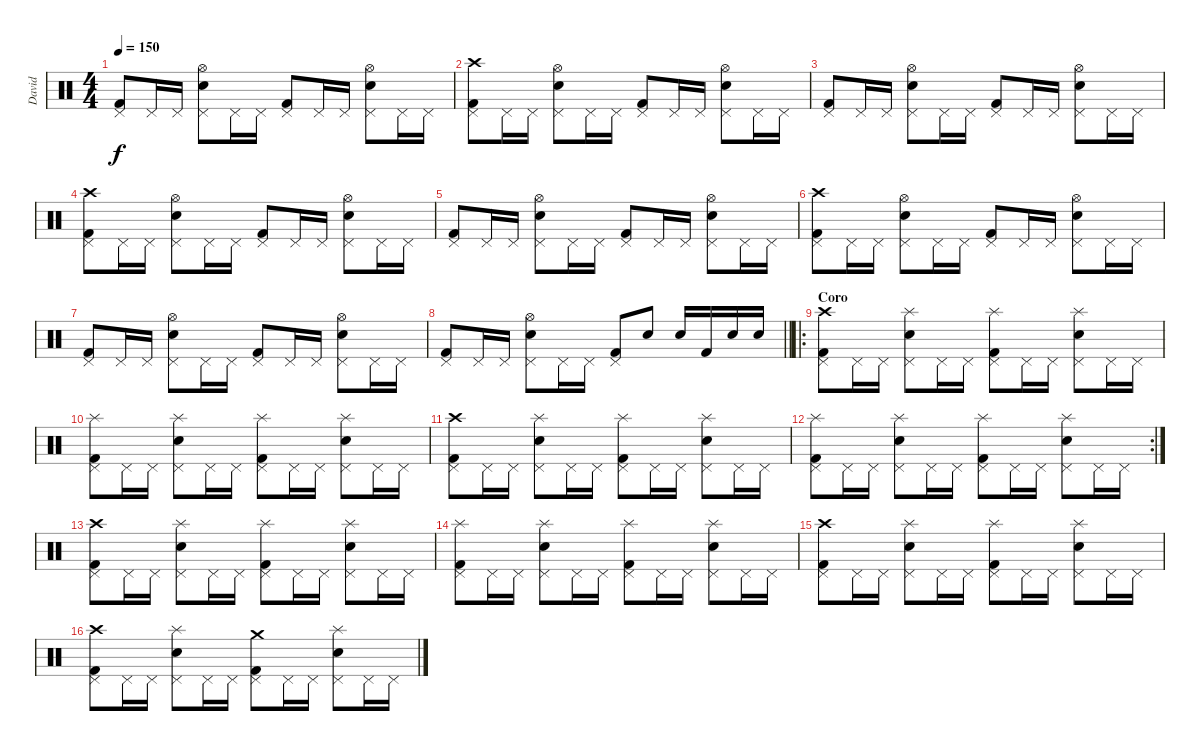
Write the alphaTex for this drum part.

\track ("David" "David") {instrument percussion}
\staff {score}
\articulation defaults
\ts (4 4)
\tempo 150
\clef neutral
\ks c
("Kick (hit) 2" "Pedal Hi-Hat (hit)").8{dy f} "Pedal Hi-Hat (hit)".16 "Pedal Hi-Hat (hit)".16 ("Snare (hit) 2" "Pedal Hi-Hat (hit)" "Hi-Hat (open)").8 "Pedal Hi-Hat (hit)".16 "Pedal Hi-Hat (hit)".16 ("Kick (hit) 2" "Pedal Hi-Hat (hit)").8 "Pedal Hi-Hat (hit)".16 "Pedal Hi-Hat (hit)".16 ("Snare (hit) 2" "Pedal Hi-Hat (hit)" "Hi-Hat (open)").8 "Pedal Hi-Hat (hit)".16 "Pedal Hi-Hat (hit)".16 |
("Kick (hit) 2" "Pedal Hi-Hat (hit)" "Crash high (hit)").8 "Pedal Hi-Hat (hit)".16 "Pedal Hi-Hat (hit)".16 ("Snare (hit) 2" "Pedal Hi-Hat (hit)" "Hi-Hat (open)").8 "Pedal Hi-Hat (hit)".16 "Pedal Hi-Hat (hit)".16 ("Kick (hit) 2" "Pedal Hi-Hat (hit)").8 "Pedal Hi-Hat (hit)".16 "Pedal Hi-Hat (hit)".16 ("Snare (hit) 2" "Pedal Hi-Hat (hit)" "Hi-Hat (open)").8 "Pedal Hi-Hat (hit)".16 "Pedal Hi-Hat (hit)".16 |
("Kick (hit) 2" "Pedal Hi-Hat (hit)").8 "Pedal Hi-Hat (hit)".16 "Pedal Hi-Hat (hit)".16 ("Snare (hit) 2" "Pedal Hi-Hat (hit)" "Hi-Hat (open)").8 "Pedal Hi-Hat (hit)".16 "Pedal Hi-Hat (hit)".16 ("Kick (hit) 2" "Pedal Hi-Hat (hit)").8 "Pedal Hi-Hat (hit)".16 "Pedal Hi-Hat (hit)".16 ("Snare (hit) 2" "Pedal Hi-Hat (hit)" "Hi-Hat (open)").8 "Pedal Hi-Hat (hit)".16 "Pedal Hi-Hat (hit)".16 |
("Kick (hit) 2" "Pedal Hi-Hat (hit)" "Crash high (hit)").8 "Pedal Hi-Hat (hit)".16 "Pedal Hi-Hat (hit)".16 ("Snare (hit) 2" "Pedal Hi-Hat (hit)" "Hi-Hat (open)").8 "Pedal Hi-Hat (hit)".16 "Pedal Hi-Hat (hit)".16 ("Kick (hit) 2" "Pedal Hi-Hat (hit)").8 "Pedal Hi-Hat (hit)".16 "Pedal Hi-Hat (hit)".16 ("Snare (hit) 2" "Pedal Hi-Hat (hit)" "Hi-Hat (open)").8 "Pedal Hi-Hat (hit)".16 "Pedal Hi-Hat (hit)".16 |
("Kick (hit) 2" "Pedal Hi-Hat (hit)").8 "Pedal Hi-Hat (hit)".16 "Pedal Hi-Hat (hit)".16 ("Snare (hit) 2" "Pedal Hi-Hat (hit)" "Hi-Hat (open)").8 "Pedal Hi-Hat (hit)".16 "Pedal Hi-Hat (hit)".16 ("Kick (hit) 2" "Pedal Hi-Hat (hit)").8 "Pedal Hi-Hat (hit)".16 "Pedal Hi-Hat (hit)".16 ("Snare (hit) 2" "Pedal Hi-Hat (hit)" "Hi-Hat (open)").8 "Pedal Hi-Hat (hit)".16 "Pedal Hi-Hat (hit)".16 |
("Kick (hit) 2" "Pedal Hi-Hat (hit)" "Crash high (hit)").8 "Pedal Hi-Hat (hit)".16 "Pedal Hi-Hat (hit)".16 ("Snare (hit) 2" "Pedal Hi-Hat (hit)" "Hi-Hat (open)").8 "Pedal Hi-Hat (hit)".16 "Pedal Hi-Hat (hit)".16 ("Kick (hit) 2" "Pedal Hi-Hat (hit)").8 "Pedal Hi-Hat (hit)".16 "Pedal Hi-Hat (hit)".16 ("Snare (hit) 2" "Pedal Hi-Hat (hit)" "Hi-Hat (open)").8 "Pedal Hi-Hat (hit)".16 "Pedal Hi-Hat (hit)".16 |
("Kick (hit) 2" "Pedal Hi-Hat (hit)").8 "Pedal Hi-Hat (hit)".16 "Pedal Hi-Hat (hit)".16 ("Snare (hit) 2" "Pedal Hi-Hat (hit)" "Hi-Hat (open)").8 "Pedal Hi-Hat (hit)".16 "Pedal Hi-Hat (hit)".16 ("Kick (hit) 2" "Pedal Hi-Hat (hit)").8 "Pedal Hi-Hat (hit)".16 "Pedal Hi-Hat (hit)".16 ("Snare (hit) 2" "Pedal Hi-Hat (hit)" "Hi-Hat (open)").8 "Pedal Hi-Hat (hit)".16 "Pedal Hi-Hat (hit)".16 |
\barLineRight lightlight
("Kick (hit) 2" "Pedal Hi-Hat (hit)").8 "Pedal Hi-Hat (hit)".16 "Pedal Hi-Hat (hit)".16 ("Snare (hit) 2" "Pedal Hi-Hat (hit)" "Hi-Hat (open)").8 "Pedal Hi-Hat (hit)".16 "Pedal Hi-Hat (hit)".16 ("Kick (hit) 2" "Pedal Hi-Hat (hit)").8 "Snare (hit) 2".8 "Snare (hit) 2".16 "Kick (hit) 2".16 "Snare (hit) 2".16 "Snare (hit) 2".16 |
\ro
\section ("" "Coro")
("Kick (hit) 2" "Pedal Hi-Hat (hit)" "Crash high (hit)").8 "Pedal Hi-Hat (hit)".16 "Pedal Hi-Hat (hit)".16 ("Snare (hit) 2" "Pedal Hi-Hat (hit)" "Splash (hit)").8 "Pedal Hi-Hat (hit)".16 "Pedal Hi-Hat (hit)".16 ("Kick (hit) 2" "Pedal Hi-Hat (hit)" "Splash (hit)").8 "Pedal Hi-Hat (hit)".16 "Pedal Hi-Hat (hit)".16 ("Snare (hit) 2" "Pedal Hi-Hat (hit)" "Splash (hit)").8 "Pedal Hi-Hat (hit)".16 "Pedal Hi-Hat (hit)".16 |
("Kick (hit) 2" "Pedal Hi-Hat (hit)" "Splash (hit)").8 "Pedal Hi-Hat (hit)".16 "Pedal Hi-Hat (hit)".16 ("Snare (hit) 2" "Pedal Hi-Hat (hit)" "Splash (hit)").8 "Pedal Hi-Hat (hit)".16 "Pedal Hi-Hat (hit)".16 ("Kick (hit) 2" "Pedal Hi-Hat (hit)" "Splash (hit)").8 "Pedal Hi-Hat (hit)".16 "Pedal Hi-Hat (hit)".16 ("Snare (hit) 2" "Pedal Hi-Hat (hit)" "Splash (hit)").8 "Pedal Hi-Hat (hit)".16 "Pedal Hi-Hat (hit)".16 |
("Kick (hit) 2" "Pedal Hi-Hat (hit)" "Crash high (hit)").8 "Pedal Hi-Hat (hit)".16 "Pedal Hi-Hat (hit)".16 ("Snare (hit) 2" "Pedal Hi-Hat (hit)" "Splash (hit)").8 "Pedal Hi-Hat (hit)".16 "Pedal Hi-Hat (hit)".16 ("Kick (hit) 2" "Pedal Hi-Hat (hit)" "Splash (hit)").8 "Pedal Hi-Hat (hit)".16 "Pedal Hi-Hat (hit)".16 ("Snare (hit) 2" "Pedal Hi-Hat (hit)" "Splash (hit)").8 "Pedal Hi-Hat (hit)".16 "Pedal Hi-Hat (hit)".16 |
\rc 2
("Kick (hit) 2" "Pedal Hi-Hat (hit)" "Splash (hit)").8 "Pedal Hi-Hat (hit)".16 "Pedal Hi-Hat (hit)".16 ("Snare (hit) 2" "Pedal Hi-Hat (hit)" "Splash (hit)").8 "Pedal Hi-Hat (hit)".16 "Pedal Hi-Hat (hit)".16 ("Kick (hit) 2" "Pedal Hi-Hat (hit)" "Splash (hit)").8 "Pedal Hi-Hat (hit)".16 "Pedal Hi-Hat (hit)".16 ("Snare (hit) 2" "Pedal Hi-Hat (hit)" "Splash (hit)").8 "Pedal Hi-Hat (hit)".16 "Pedal Hi-Hat (hit)".16 |
("Kick (hit) 2" "Pedal Hi-Hat (hit)" "Crash high (hit)").8 "Pedal Hi-Hat (hit)".16 "Pedal Hi-Hat (hit)".16 ("Snare (hit) 2" "Pedal Hi-Hat (hit)" "Splash (hit)").8 "Pedal Hi-Hat (hit)".16 "Pedal Hi-Hat (hit)".16 ("Kick (hit) 2" "Pedal Hi-Hat (hit)" "Splash (hit)").8 "Pedal Hi-Hat (hit)".16 "Pedal Hi-Hat (hit)".16 ("Snare (hit) 2" "Pedal Hi-Hat (hit)" "Splash (hit)").8 "Pedal Hi-Hat (hit)".16 "Pedal Hi-Hat (hit)".16 |
("Kick (hit) 2" "Pedal Hi-Hat (hit)" "Splash (hit)").8 "Pedal Hi-Hat (hit)".16 "Pedal Hi-Hat (hit)".16 ("Snare (hit) 2" "Pedal Hi-Hat (hit)" "Splash (hit)").8 "Pedal Hi-Hat (hit)".16 "Pedal Hi-Hat (hit)".16 ("Kick (hit) 2" "Pedal Hi-Hat (hit)" "Splash (hit)").8 "Pedal Hi-Hat (hit)".16 "Pedal Hi-Hat (hit)".16 ("Snare (hit) 2" "Pedal Hi-Hat (hit)" "Splash (hit)").8 "Pedal Hi-Hat (hit)".16 "Pedal Hi-Hat (hit)".16 |
("Kick (hit) 2" "Pedal Hi-Hat (hit)" "Crash high (hit)").8 "Pedal Hi-Hat (hit)".16 "Pedal Hi-Hat (hit)".16 ("Snare (hit) 2" "Pedal Hi-Hat (hit)" "Splash (hit)").8 "Pedal Hi-Hat (hit)".16 "Pedal Hi-Hat (hit)".16 ("Kick (hit) 2" "Pedal Hi-Hat (hit)" "Splash (hit)").8 "Pedal Hi-Hat (hit)".16 "Pedal Hi-Hat (hit)".16 ("Snare (hit) 2" "Pedal Hi-Hat (hit)" "Splash (hit)").8 "Pedal Hi-Hat (hit)".16 "Pedal Hi-Hat (hit)".16 |
("Kick (hit) 2" "Pedal Hi-Hat (hit)" "Crash high (hit)").8 "Pedal Hi-Hat (hit)".16 "Pedal Hi-Hat (hit)".16 ("Snare (hit) 2" "Pedal Hi-Hat (hit)" "Splash (hit)").8 "Pedal Hi-Hat (hit)".16 "Pedal Hi-Hat (hit)".16 ("Kick (hit) 2" "Pedal Hi-Hat (hit)" "Crash medium (hit)").8 "Pedal Hi-Hat (hit)".16 "Pedal Hi-Hat (hit)".16 ("Snare (hit) 2" "Pedal Hi-Hat (hit)" "Splash (hit)").8 "Pedal Hi-Hat (hit)".16 "Pedal Hi-Hat (hit)".16
